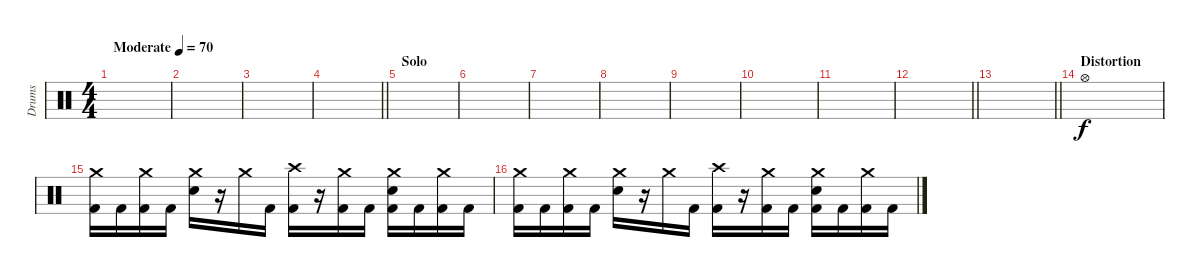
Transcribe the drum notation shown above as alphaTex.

\track ("Drums" "Drums") {mute instrument percussion}
\staff {score}
\articulation defaults
\ts (4 4)
\tempo (70 "Moderate")
\clef neutral
\ks c
|
|
|
\barLineRight lightlight
|
\section ("" "Solo")
|
|
|
|
|
|
|
\barLineRight lightlight
|
\section ("" "")
\barLineRight lightlight
|
\section ("" "Distortion")
"Hi-Hat (open)".1 |
("Crash medium (hit)" "Kick (hit) 2").16 "Kick (hit) 2".16 ("Crash medium (hit)" "Kick (hit) 2").16 "Kick (hit) 2".16 ("Crash medium (hit)" "Electric Snare (hit)").16 r.16 "Crash medium (hit)".16 "Kick (hit) 2".16 ("Crash high (hit)" "Kick (hit) 2").16 r.16 ("Crash medium (hit)" "Kick (hit) 2").16 "Kick (hit) 2".16 ("Crash medium (hit)" "Electric Snare (hit)" "Kick (hit) 2").16 "Kick (hit) 2".16 ("Crash medium (hit)" "Kick (hit) 2").16 "Kick (hit) 2".16 |
("Crash medium (hit)" "Kick (hit) 2").16 "Kick (hit) 2".16 ("Crash medium (hit)" "Kick (hit) 2").16 "Kick (hit) 2".16 ("Crash medium (hit)" "Electric Snare (hit)").16 r.16 "Crash medium (hit)".16 "Kick (hit) 2".16 ("Crash high (hit)" "Kick (hit) 2").16 r.16 ("Crash medium (hit)" "Kick (hit) 2").16 "Kick (hit) 2".16 ("Crash medium (hit)" "Electric Snare (hit)" "Kick (hit) 2").16 "Kick (hit) 2".16 ("Crash medium (hit)" "Kick (hit) 2").16 "Kick (hit) 2".16
